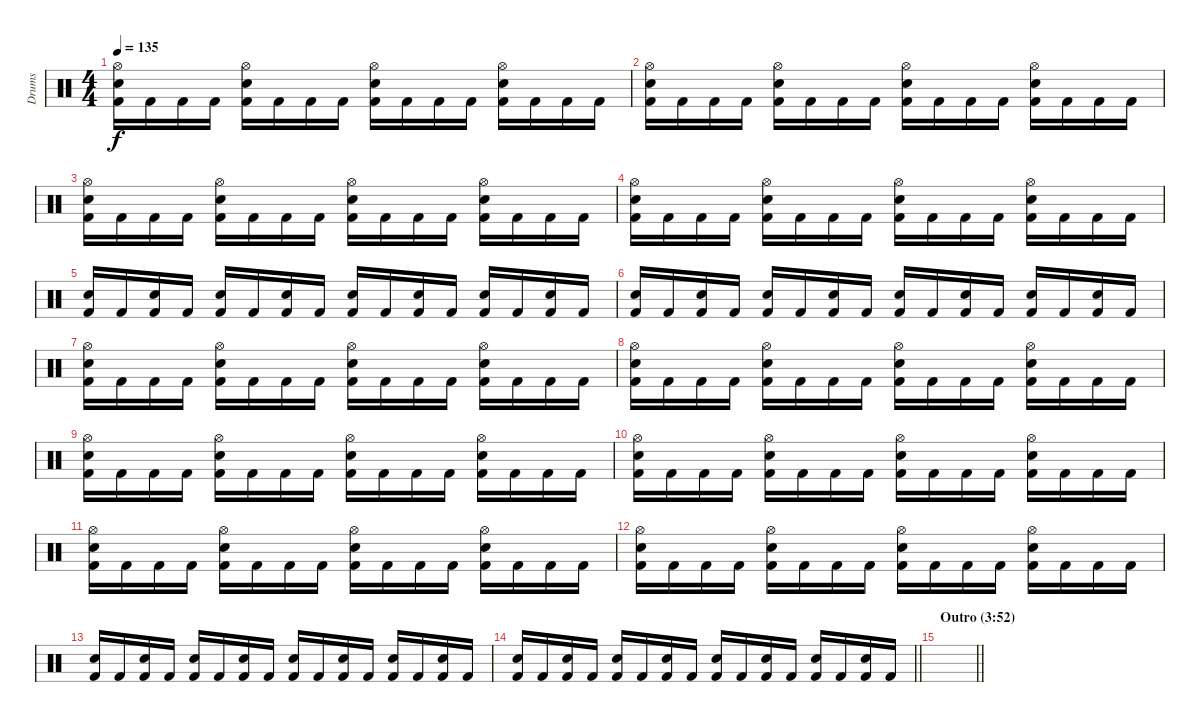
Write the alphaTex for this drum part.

\track ("Drums" "Drums") {instrument percussion}
\staff {score}
\articulation defaults
\ts (4 4)
\tempo 135
\clef neutral
\ks c
("Hi-Hat (open)" "Electric Snare (hit)" "Kick (hit) 2").16{dy f} "Kick (hit) 2".16 "Kick (hit) 2".16 "Kick (hit) 2".16 ("Hi-Hat (open)" "Electric Snare (hit)" "Kick (hit) 2").16 "Kick (hit) 2".16 "Kick (hit) 2".16 "Kick (hit) 2".16 ("Hi-Hat (open)" "Electric Snare (hit)" "Kick (hit) 2").16 "Kick (hit) 2".16 "Kick (hit) 2".16 "Kick (hit) 2".16 ("Hi-Hat (open)" "Electric Snare (hit)" "Kick (hit) 2").16 "Kick (hit) 2".16 "Kick (hit) 2".16 "Kick (hit) 2".16 |
("Hi-Hat (open)" "Electric Snare (hit)" "Kick (hit) 2").16 "Kick (hit) 2".16 "Kick (hit) 2".16 "Kick (hit) 2".16 ("Hi-Hat (open)" "Electric Snare (hit)" "Kick (hit) 2").16 "Kick (hit) 2".16 "Kick (hit) 2".16 "Kick (hit) 2".16 ("Hi-Hat (open)" "Electric Snare (hit)" "Kick (hit) 2").16 "Kick (hit) 2".16 "Kick (hit) 2".16 "Kick (hit) 2".16 ("Hi-Hat (open)" "Electric Snare (hit)" "Kick (hit) 2").16 "Kick (hit) 2".16 "Kick (hit) 2".16 "Kick (hit) 2".16 |
("Hi-Hat (open)" "Electric Snare (hit)" "Kick (hit) 2").16 "Kick (hit) 2".16 "Kick (hit) 2".16 "Kick (hit) 2".16 ("Hi-Hat (open)" "Electric Snare (hit)" "Kick (hit) 2").16 "Kick (hit) 2".16 "Kick (hit) 2".16 "Kick (hit) 2".16 ("Hi-Hat (open)" "Electric Snare (hit)" "Kick (hit) 2").16 "Kick (hit) 2".16 "Kick (hit) 2".16 "Kick (hit) 2".16 ("Hi-Hat (open)" "Electric Snare (hit)" "Kick (hit) 2").16 "Kick (hit) 2".16 "Kick (hit) 2".16 "Kick (hit) 2".16 |
("Hi-Hat (open)" "Electric Snare (hit)" "Kick (hit) 2").16 "Kick (hit) 2".16 "Kick (hit) 2".16 "Kick (hit) 2".16 ("Hi-Hat (open)" "Electric Snare (hit)" "Kick (hit) 2").16 "Kick (hit) 2".16 "Kick (hit) 2".16 "Kick (hit) 2".16 ("Hi-Hat (open)" "Electric Snare (hit)" "Kick (hit) 2").16 "Kick (hit) 2".16 "Kick (hit) 2".16 "Kick (hit) 2".16 ("Hi-Hat (open)" "Electric Snare (hit)" "Kick (hit) 2").16 "Kick (hit) 2".16 "Kick (hit) 2".16 "Kick (hit) 2".16 |
("Electric Snare (hit)" "Kick (hit) 2").16 "Kick (hit) 2".16 ("Electric Snare (hit)" "Kick (hit) 2").16 "Kick (hit) 2".16 ("Electric Snare (hit)" "Kick (hit) 2").16 "Kick (hit) 2".16 ("Electric Snare (hit)" "Kick (hit) 2").16 "Kick (hit) 2".16 ("Electric Snare (hit)" "Kick (hit) 2").16 "Kick (hit) 2".16 ("Electric Snare (hit)" "Kick (hit) 2").16 "Kick (hit) 2".16 ("Electric Snare (hit)" "Kick (hit) 2").16 "Kick (hit) 2".16 ("Electric Snare (hit)" "Kick (hit) 2").16 "Kick (hit) 2".16 |
("Electric Snare (hit)" "Kick (hit) 2").16 "Kick (hit) 2".16 ("Electric Snare (hit)" "Kick (hit) 2").16 "Kick (hit) 2".16 ("Electric Snare (hit)" "Kick (hit) 2").16 "Kick (hit) 2".16 ("Electric Snare (hit)" "Kick (hit) 2").16 "Kick (hit) 2".16 ("Electric Snare (hit)" "Kick (hit) 2").16 "Kick (hit) 2".16 ("Electric Snare (hit)" "Kick (hit) 2").16 "Kick (hit) 2".16 ("Electric Snare (hit)" "Kick (hit) 2").16 "Kick (hit) 2".16 ("Electric Snare (hit)" "Kick (hit) 2").16 "Kick (hit) 2".16 |
("Hi-Hat (open)" "Electric Snare (hit)" "Kick (hit) 2").16 "Kick (hit) 2".16 "Kick (hit) 2".16 "Kick (hit) 2".16 ("Hi-Hat (open)" "Electric Snare (hit)" "Kick (hit) 2").16 "Kick (hit) 2".16 "Kick (hit) 2".16 "Kick (hit) 2".16 ("Hi-Hat (open)" "Electric Snare (hit)" "Kick (hit) 2").16 "Kick (hit) 2".16 "Kick (hit) 2".16 "Kick (hit) 2".16 ("Hi-Hat (open)" "Electric Snare (hit)" "Kick (hit) 2").16 "Kick (hit) 2".16 "Kick (hit) 2".16 "Kick (hit) 2".16 |
("Hi-Hat (open)" "Electric Snare (hit)" "Kick (hit) 2").16 "Kick (hit) 2".16 "Kick (hit) 2".16 "Kick (hit) 2".16 ("Hi-Hat (open)" "Electric Snare (hit)" "Kick (hit) 2").16 "Kick (hit) 2".16 "Kick (hit) 2".16 "Kick (hit) 2".16 ("Hi-Hat (open)" "Electric Snare (hit)" "Kick (hit) 2").16 "Kick (hit) 2".16 "Kick (hit) 2".16 "Kick (hit) 2".16 ("Hi-Hat (open)" "Electric Snare (hit)" "Kick (hit) 2").16 "Kick (hit) 2".16 "Kick (hit) 2".16 "Kick (hit) 2".16 |
("Hi-Hat (open)" "Electric Snare (hit)" "Kick (hit) 2").16 "Kick (hit) 2".16 "Kick (hit) 2".16 "Kick (hit) 2".16 ("Hi-Hat (open)" "Electric Snare (hit)" "Kick (hit) 2").16 "Kick (hit) 2".16 "Kick (hit) 2".16 "Kick (hit) 2".16 ("Hi-Hat (open)" "Electric Snare (hit)" "Kick (hit) 2").16 "Kick (hit) 2".16 "Kick (hit) 2".16 "Kick (hit) 2".16 ("Hi-Hat (open)" "Electric Snare (hit)" "Kick (hit) 2").16 "Kick (hit) 2".16 "Kick (hit) 2".16 "Kick (hit) 2".16 |
("Hi-Hat (open)" "Electric Snare (hit)" "Kick (hit) 2").16 "Kick (hit) 2".16 "Kick (hit) 2".16 "Kick (hit) 2".16 ("Hi-Hat (open)" "Electric Snare (hit)" "Kick (hit) 2").16 "Kick (hit) 2".16 "Kick (hit) 2".16 "Kick (hit) 2".16 ("Hi-Hat (open)" "Electric Snare (hit)" "Kick (hit) 2").16 "Kick (hit) 2".16 "Kick (hit) 2".16 "Kick (hit) 2".16 ("Hi-Hat (open)" "Electric Snare (hit)" "Kick (hit) 2").16 "Kick (hit) 2".16 "Kick (hit) 2".16 "Kick (hit) 2".16 |
("Hi-Hat (open)" "Electric Snare (hit)" "Kick (hit) 2").16 "Kick (hit) 2".16 "Kick (hit) 2".16 "Kick (hit) 2".16 ("Hi-Hat (open)" "Electric Snare (hit)" "Kick (hit) 2").16 "Kick (hit) 2".16 "Kick (hit) 2".16 "Kick (hit) 2".16 ("Hi-Hat (open)" "Electric Snare (hit)" "Kick (hit) 2").16 "Kick (hit) 2".16 "Kick (hit) 2".16 "Kick (hit) 2".16 ("Hi-Hat (open)" "Electric Snare (hit)" "Kick (hit) 2").16 "Kick (hit) 2".16 "Kick (hit) 2".16 "Kick (hit) 2".16 |
("Hi-Hat (open)" "Electric Snare (hit)" "Kick (hit) 2").16 "Kick (hit) 2".16 "Kick (hit) 2".16 "Kick (hit) 2".16 ("Hi-Hat (open)" "Electric Snare (hit)" "Kick (hit) 2").16 "Kick (hit) 2".16 "Kick (hit) 2".16 "Kick (hit) 2".16 ("Hi-Hat (open)" "Electric Snare (hit)" "Kick (hit) 2").16 "Kick (hit) 2".16 "Kick (hit) 2".16 "Kick (hit) 2".16 ("Hi-Hat (open)" "Electric Snare (hit)" "Kick (hit) 2").16 "Kick (hit) 2".16 "Kick (hit) 2".16 "Kick (hit) 2".16 |
("Electric Snare (hit)" "Kick (hit) 2").16 "Kick (hit) 2".16 ("Electric Snare (hit)" "Kick (hit) 2").16 "Kick (hit) 2".16 ("Electric Snare (hit)" "Kick (hit) 2").16 "Kick (hit) 2".16 ("Electric Snare (hit)" "Kick (hit) 2").16 "Kick (hit) 2".16 ("Electric Snare (hit)" "Kick (hit) 2").16 "Kick (hit) 2".16 ("Electric Snare (hit)" "Kick (hit) 2").16 "Kick (hit) 2".16 ("Electric Snare (hit)" "Kick (hit) 2").16 "Kick (hit) 2".16 ("Electric Snare (hit)" "Kick (hit) 2").16 "Kick (hit) 2".16 |
\barLineRight lightlight
("Electric Snare (hit)" "Kick (hit) 2").16 "Kick (hit) 2".16 ("Electric Snare (hit)" "Kick (hit) 2").16 "Kick (hit) 2".16 ("Electric Snare (hit)" "Kick (hit) 2").16 "Kick (hit) 2".16 ("Electric Snare (hit)" "Kick (hit) 2").16 "Kick (hit) 2".16 ("Electric Snare (hit)" "Kick (hit) 2").16 "Kick (hit) 2".16 ("Electric Snare (hit)" "Kick (hit) 2").16 "Kick (hit) 2".16 ("Electric Snare (hit)" "Kick (hit) 2").16 "Kick (hit) 2".16 ("Electric Snare (hit)" "Kick (hit) 2").16 "Kick (hit) 2".16 |
\section ("" "Outro (3:52)")
\barLineRight lightlight
